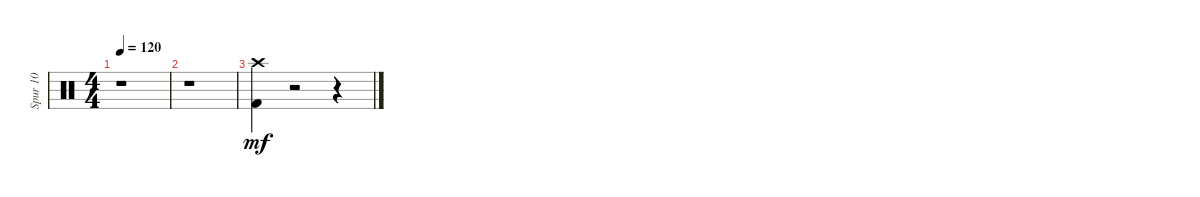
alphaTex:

\track ("Spur 10" "Spur 10") {instrument percussion}
\staff {score}
\articulation defaults
\ts (4 4)
\tempo 120
\clef neutral
\ks c
r.1{dy mf} |
r.1 |
("Kick (hit) 2" "Crash high (hit)").4 r.2 r.4
